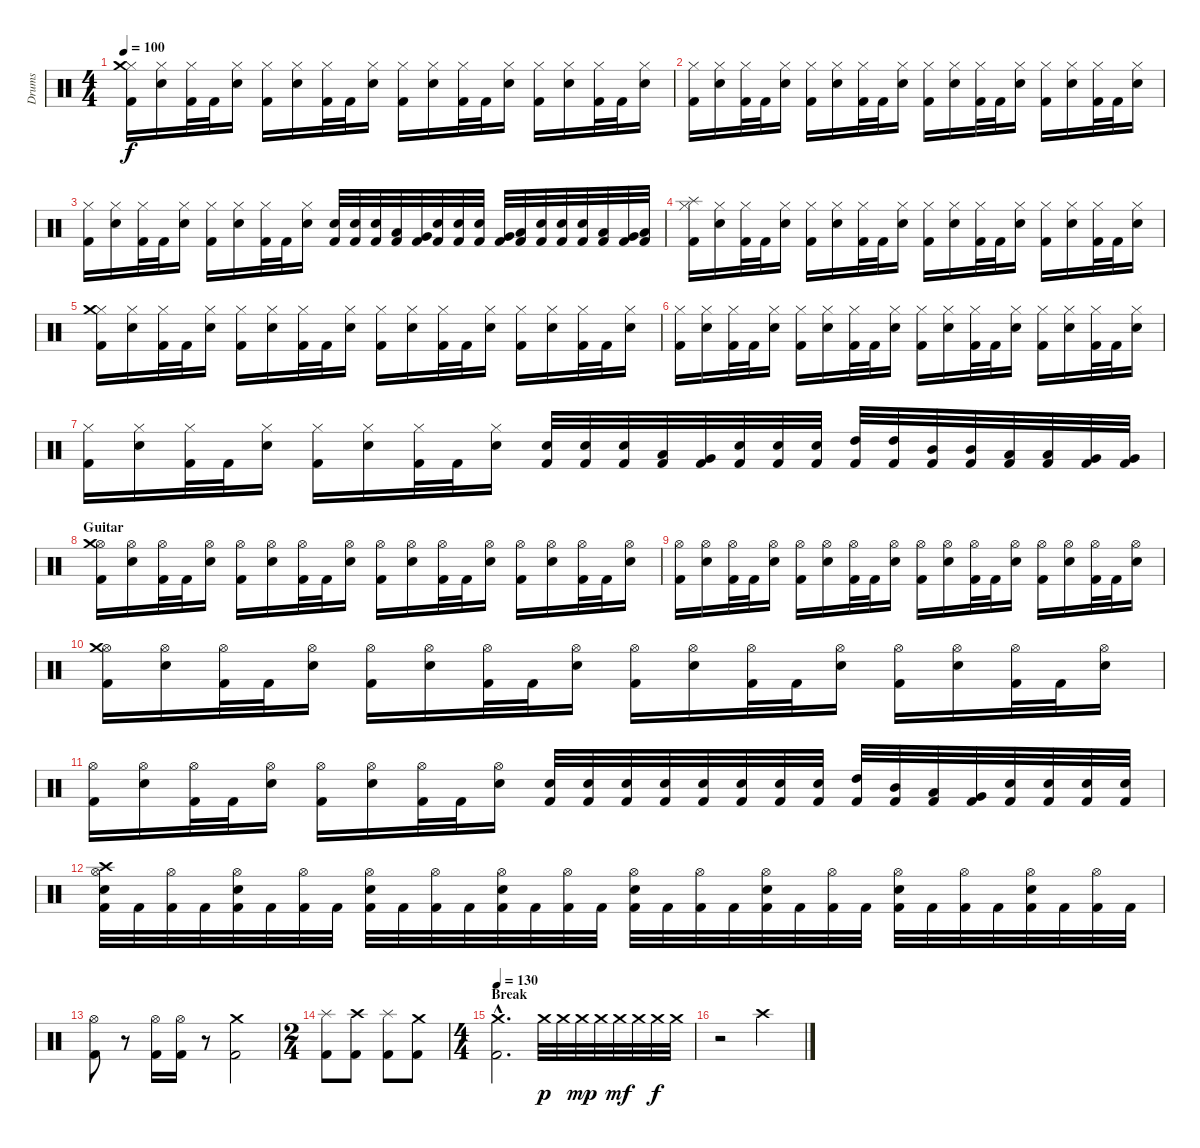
\track ("Drums" "Drums") {instrument percussion}
\staff {score}
\articulation defaults
\ts (4 4)
\tempo 100
\clef neutral
\ks c
("Kick (hit) 2" "Hi-Hat (closed)" "Crash medium (hit)").16{dy f} ("Snare (hit) 2" "Hi-Hat (closed)").16 ("Kick (hit) 2" "Hi-Hat (closed)").32 "Kick (hit) 2".32 ("Snare (hit) 2" "Hi-Hat (closed)").16 ("Kick (hit) 2" "Hi-Hat (closed)").16 ("Snare (hit) 2" "Hi-Hat (closed)").16 ("Kick (hit) 2" "Hi-Hat (closed)").32 "Kick (hit) 2".32 ("Snare (hit) 2" "Hi-Hat (closed)").16 ("Kick (hit) 2" "Hi-Hat (closed)").16 ("Snare (hit) 2" "Hi-Hat (closed)").16 ("Kick (hit) 2" "Hi-Hat (closed)").32 "Kick (hit) 2".32 ("Snare (hit) 2" "Hi-Hat (closed)").16 ("Kick (hit) 2" "Hi-Hat (closed)").16 ("Snare (hit) 2" "Hi-Hat (closed)").16 ("Kick (hit) 2" "Hi-Hat (closed)").32 "Kick (hit) 2".32 ("Snare (hit) 2" "Hi-Hat (closed)").16 |
("Kick (hit) 2" "Hi-Hat (closed)").16 ("Snare (hit) 2" "Hi-Hat (closed)").16 ("Kick (hit) 2" "Hi-Hat (closed)").32 "Kick (hit) 2".32 ("Snare (hit) 2" "Hi-Hat (closed)").16 ("Kick (hit) 2" "Hi-Hat (closed)").16 ("Snare (hit) 2" "Hi-Hat (closed)").16 ("Kick (hit) 2" "Hi-Hat (closed)").32 "Kick (hit) 2".32 ("Snare (hit) 2" "Hi-Hat (closed)").16 ("Kick (hit) 2" "Hi-Hat (closed)").16 ("Snare (hit) 2" "Hi-Hat (closed)").16 ("Kick (hit) 2" "Hi-Hat (closed)").32 "Kick (hit) 2".32 ("Snare (hit) 2" "Hi-Hat (closed)").16 ("Kick (hit) 2" "Hi-Hat (closed)").16 ("Snare (hit) 2" "Hi-Hat (closed)").16 ("Kick (hit) 2" "Hi-Hat (closed)").32 "Kick (hit) 2".32 ("Snare (hit) 2" "Hi-Hat (closed)").16 |
("Kick (hit) 2" "Hi-Hat (closed)").16 ("Snare (hit) 2" "Hi-Hat (closed)").16 ("Kick (hit) 2" "Hi-Hat (closed)").32 "Kick (hit) 2".32 ("Snare (hit) 2" "Hi-Hat (closed)").16 ("Kick (hit) 2" "Hi-Hat (closed)").16 ("Snare (hit) 2" "Hi-Hat (closed)").16 ("Kick (hit) 2" "Hi-Hat (closed)").32 "Kick (hit) 2".32 ("Snare (hit) 2" "Hi-Hat (closed)").16 ("Kick (hit) 2" "Snare (hit) 2").32 ("Kick (hit) 2" "Snare (hit) 2").32 ("Kick (hit) 2" "Snare (hit) 2").32 ("Kick (hit) 2" "Low Tom (hit)").32 ("Kick (hit) 2" "Very Low Tom (hit)").32 ("Kick (hit) 2" "Snare (hit) 2").32 ("Kick (hit) 2" "Snare (hit) 2").32 ("Kick (hit) 2" "Snare (hit) 2").32 ("Kick (hit) 2" "Very Low Tom (hit)").32 ("Kick (hit) 2" "Low Floor Tom (hit)").32 ("Kick (hit) 2" "Snare (hit) 2").32 ("Kick (hit) 2" "Snare (hit) 2").32 ("Kick (hit) 2" "Snare (hit) 2").32 ("Kick (hit) 2" "Low Tom (hit)").32 ("Kick (hit) 2" "Very Low Tom (hit)").32 ("Kick (hit) 2" "Low Floor Tom (hit)").32 |
("Kick (hit) 2" "Hi-Hat (closed)" "Splash (hit)").16 ("Snare (hit) 2" "Hi-Hat (closed)").16 ("Kick (hit) 2" "Hi-Hat (closed)").32 "Kick (hit) 2".32 ("Snare (hit) 2" "Hi-Hat (closed)").16 ("Kick (hit) 2" "Hi-Hat (closed)").16 ("Snare (hit) 2" "Hi-Hat (closed)").16 ("Kick (hit) 2" "Hi-Hat (closed)").32 "Kick (hit) 2".32 ("Snare (hit) 2" "Hi-Hat (closed)").16 ("Kick (hit) 2" "Hi-Hat (closed)").16 ("Snare (hit) 2" "Hi-Hat (closed)").16 ("Kick (hit) 2" "Hi-Hat (closed)").32 "Kick (hit) 2".32 ("Snare (hit) 2" "Hi-Hat (closed)").16 ("Kick (hit) 2" "Hi-Hat (closed)").16 ("Snare (hit) 2" "Hi-Hat (closed)").16 ("Kick (hit) 2" "Hi-Hat (closed)").32 "Kick (hit) 2".32 ("Snare (hit) 2" "Hi-Hat (closed)").16 |
("Kick (hit) 2" "Hi-Hat (closed)" "Crash medium (hit)").16 ("Snare (hit) 2" "Hi-Hat (closed)").16 ("Kick (hit) 2" "Hi-Hat (closed)").32 "Kick (hit) 2".32 ("Snare (hit) 2" "Hi-Hat (closed)").16 ("Kick (hit) 2" "Hi-Hat (closed)").16 ("Snare (hit) 2" "Hi-Hat (closed)").16 ("Kick (hit) 2" "Hi-Hat (closed)").32 "Kick (hit) 2".32 ("Snare (hit) 2" "Hi-Hat (closed)").16 ("Kick (hit) 2" "Hi-Hat (closed)").16 ("Snare (hit) 2" "Hi-Hat (closed)").16 ("Kick (hit) 2" "Hi-Hat (closed)").32 "Kick (hit) 2".32 ("Snare (hit) 2" "Hi-Hat (closed)").16 ("Kick (hit) 2" "Hi-Hat (closed)").16 ("Snare (hit) 2" "Hi-Hat (closed)").16 ("Kick (hit) 2" "Hi-Hat (closed)").32 "Kick (hit) 2".32 ("Snare (hit) 2" "Hi-Hat (closed)").16 |
("Kick (hit) 2" "Hi-Hat (closed)").16 ("Snare (hit) 2" "Hi-Hat (closed)").16 ("Kick (hit) 2" "Hi-Hat (closed)").32 "Kick (hit) 2".32 ("Snare (hit) 2" "Hi-Hat (closed)").16 ("Kick (hit) 2" "Hi-Hat (closed)").16 ("Snare (hit) 2" "Hi-Hat (closed)").16 ("Kick (hit) 2" "Hi-Hat (closed)").32 "Kick (hit) 2".32 ("Snare (hit) 2" "Hi-Hat (closed)").16 ("Kick (hit) 2" "Hi-Hat (closed)").16 ("Snare (hit) 2" "Hi-Hat (closed)").16 ("Kick (hit) 2" "Hi-Hat (closed)").32 "Kick (hit) 2".32 ("Snare (hit) 2" "Hi-Hat (closed)").16 ("Kick (hit) 2" "Hi-Hat (closed)").16 ("Snare (hit) 2" "Hi-Hat (closed)").16 ("Kick (hit) 2" "Hi-Hat (closed)").32 "Kick (hit) 2".32 ("Snare (hit) 2" "Hi-Hat (closed)").16 |
("Kick (hit) 2" "Hi-Hat (closed)").16 ("Snare (hit) 2" "Hi-Hat (closed)").16 ("Kick (hit) 2" "Hi-Hat (closed)").32 "Kick (hit) 2".32 ("Snare (hit) 2" "Hi-Hat (closed)").16 ("Kick (hit) 2" "Hi-Hat (closed)").16 ("Snare (hit) 2" "Hi-Hat (closed)").16 ("Kick (hit) 2" "Hi-Hat (closed)").32 "Kick (hit) 2".32 ("Snare (hit) 2" "Hi-Hat (closed)").16 ("Kick (hit) 2" "Snare (hit) 2").32 ("Kick (hit) 2" "Snare (hit) 2").32 ("Kick (hit) 2" "Snare (hit) 2").32 ("Kick (hit) 2" "Low Tom (hit)").32 ("Kick (hit) 2" "Very Low Tom (hit)").32 ("Kick (hit) 2" "Snare (hit) 2").32 ("Kick (hit) 2" "Snare (hit) 2").32 ("Kick (hit) 2" "Snare (hit) 2").32 ("Kick (hit) 2" "High Tom (hit)").32 ("Kick (hit) 2" "High Tom (hit)").32 ("Kick (hit) 2" "Mid Tom (hit)").32 ("Kick (hit) 2" "Mid Tom (hit)").32 ("Kick (hit) 2" "Low Tom (hit)").32 ("Kick (hit) 2" "Low Tom (hit)").32 ("Kick (hit) 2" "Very Low Tom (hit)").32 ("Kick (hit) 2" "Very Low Tom (hit)").32 |
\section ("" "Guitar")
("Kick (hit) 2" "Hi-Hat (open)" "Crash medium (hit)").16 ("Snare (hit) 2" "Hi-Hat (open)").16 ("Kick (hit) 2" "Hi-Hat (open)").32 "Kick (hit) 2".32 ("Snare (hit) 2" "Hi-Hat (open)").16 ("Kick (hit) 2" "Hi-Hat (open)").16 ("Snare (hit) 2" "Hi-Hat (open)").16 ("Kick (hit) 2" "Hi-Hat (open)").32 "Kick (hit) 2".32 ("Snare (hit) 2" "Hi-Hat (open)").16 ("Kick (hit) 2" "Hi-Hat (open)").16 ("Snare (hit) 2" "Hi-Hat (open)").16 ("Kick (hit) 2" "Hi-Hat (open)").32 "Kick (hit) 2".32 ("Snare (hit) 2" "Hi-Hat (open)").16 ("Kick (hit) 2" "Hi-Hat (open)").16 ("Snare (hit) 2" "Hi-Hat (open)").16 ("Kick (hit) 2" "Hi-Hat (open)").32 "Kick (hit) 2".32 ("Snare (hit) 2" "Hi-Hat (open)").16 |
("Kick (hit) 2" "Hi-Hat (open)").16 ("Snare (hit) 2" "Hi-Hat (open)").16 ("Kick (hit) 2" "Hi-Hat (open)").32 "Kick (hit) 2".32 ("Snare (hit) 2" "Hi-Hat (open)").16 ("Kick (hit) 2" "Hi-Hat (open)").16 ("Snare (hit) 2" "Hi-Hat (open)").16 ("Kick (hit) 2" "Hi-Hat (open)").32 "Kick (hit) 2".32 ("Snare (hit) 2" "Hi-Hat (open)").16 ("Kick (hit) 2" "Hi-Hat (open)").16 ("Snare (hit) 2" "Hi-Hat (open)").16 ("Kick (hit) 2" "Hi-Hat (open)").32 "Kick (hit) 2".32 ("Snare (hit) 2" "Hi-Hat (open)").16 ("Kick (hit) 2" "Hi-Hat (open)").16 ("Snare (hit) 2" "Hi-Hat (open)").16 ("Kick (hit) 2" "Hi-Hat (open)").32 "Kick (hit) 2".32 ("Snare (hit) 2" "Hi-Hat (open)").16 |
("Kick (hit) 2" "Hi-Hat (open)" "Crash medium (hit)").16 ("Snare (hit) 2" "Hi-Hat (open)").16 ("Kick (hit) 2" "Hi-Hat (open)").32 "Kick (hit) 2".32 ("Snare (hit) 2" "Hi-Hat (open)").16 ("Kick (hit) 2" "Hi-Hat (open)").16 ("Snare (hit) 2" "Hi-Hat (open)").16 ("Kick (hit) 2" "Hi-Hat (open)").32 "Kick (hit) 2".32 ("Snare (hit) 2" "Hi-Hat (open)").16 ("Kick (hit) 2" "Hi-Hat (open)").16 ("Snare (hit) 2" "Hi-Hat (open)").16 ("Kick (hit) 2" "Hi-Hat (open)").32 "Kick (hit) 2".32 ("Snare (hit) 2" "Hi-Hat (open)").16 ("Kick (hit) 2" "Hi-Hat (open)").16 ("Snare (hit) 2" "Hi-Hat (open)").16 ("Kick (hit) 2" "Hi-Hat (open)").32 "Kick (hit) 2".32 ("Snare (hit) 2" "Hi-Hat (open)").16 |
("Kick (hit) 2" "Hi-Hat (open)").16 ("Snare (hit) 2" "Hi-Hat (open)").16 ("Kick (hit) 2" "Hi-Hat (open)").32 "Kick (hit) 2".32 ("Snare (hit) 2" "Hi-Hat (open)").16 ("Kick (hit) 2" "Hi-Hat (open)").16 ("Snare (hit) 2" "Hi-Hat (open)").16 ("Kick (hit) 2" "Hi-Hat (open)").32 "Kick (hit) 2".32 ("Snare (hit) 2" "Hi-Hat (open)").16 ("Kick (hit) 2" "Snare (hit) 2").32 ("Kick (hit) 2" "Snare (hit) 2").32 ("Kick (hit) 2" "Snare (hit) 2").32 ("Kick (hit) 2" "Snare (hit) 2").32 ("Kick (hit) 2" "Snare (hit) 2").32 ("Kick (hit) 2" "Snare (hit) 2").32 ("Kick (hit) 2" "Snare (hit) 2").32 ("Kick (hit) 2" "Snare (hit) 2").32 ("Kick (hit) 2" "High Tom (hit)").32 ("Kick (hit) 2" "Mid Tom (hit)").32 ("Kick (hit) 2" "Low Tom (hit)").32 ("Kick (hit) 2" "Very Low Tom (hit)").32 ("Kick (hit) 2" "Snare (hit) 2").32 ("Kick (hit) 2" "Snare (hit) 2").32 ("Kick (hit) 2" "Snare (hit) 2").32 ("Kick (hit) 2" "Snare (hit) 2").32 |
("Kick (hit) 2" "Snare (hit) 2" "Hi-Hat (open)" "Crash high (hit)").32 "Kick (hit) 2".32 ("Kick (hit) 2" "Hi-Hat (open)").32 "Kick (hit) 2".32 ("Kick (hit) 2" "Snare (hit) 2" "Hi-Hat (open)").32 "Kick (hit) 2".32 ("Kick (hit) 2" "Hi-Hat (open)").32 "Kick (hit) 2".32 ("Kick (hit) 2" "Snare (hit) 2" "Hi-Hat (open)").32 "Kick (hit) 2".32 ("Kick (hit) 2" "Hi-Hat (open)").32 "Kick (hit) 2".32 ("Kick (hit) 2" "Snare (hit) 2" "Hi-Hat (open)").32 "Kick (hit) 2".32 ("Kick (hit) 2" "Hi-Hat (open)").32 "Kick (hit) 2".32 ("Kick (hit) 2" "Snare (hit) 2" "Hi-Hat (open)").32 "Kick (hit) 2".32 ("Kick (hit) 2" "Hi-Hat (open)").32 "Kick (hit) 2".32 ("Kick (hit) 2" "Snare (hit) 2" "Hi-Hat (open)").32 "Kick (hit) 2".32 ("Kick (hit) 2" "Hi-Hat (open)").32 "Kick (hit) 2".32 ("Kick (hit) 2" "Snare (hit) 2" "Hi-Hat (open)").32 "Kick (hit) 2".32 ("Kick (hit) 2" "Hi-Hat (open)").32 "Kick (hit) 2".32 ("Kick (hit) 2" "Snare (hit) 2" "Hi-Hat (open)").32 "Kick (hit) 2".32 ("Kick (hit) 2" "Hi-Hat (open)").32 "Kick (hit) 2".32 |
("Kick (hit) 2" "Hi-Hat (open)").8 r.8 ("Kick (hit) 2" "Hi-Hat (open)").16 ("Kick (hit) 2" "Hi-Hat (open)").16 r.8 ("Kick (hit) 2" "Crash medium (hit)").2 |
\ts (2 4)
("Kick (hit) 2" "Splash (hit)").8 ("Kick (hit) 2" "Crash high (hit)").8 ("Kick (hit) 2" "Splash (hit)").8 ("Kick (hit) 2" "Crash medium (hit)").8 |
\ts (4 4)
\section ("" "Break")
\tempo 130
("Kick (hit) 2"{hac} "Crash medium (hit)"{hac}).2{d} "Crash medium (hit)".32{dy p} "Crash medium (hit)".32 "Crash medium (hit)".32{dy mp} "Crash medium (hit)".32 "Crash medium (hit)".32{dy mf} "Crash medium (hit)".32 "Crash medium (hit)".32{dy f} "Crash medium (hit)".32 |
r.2 "Crash high (hit)".2
